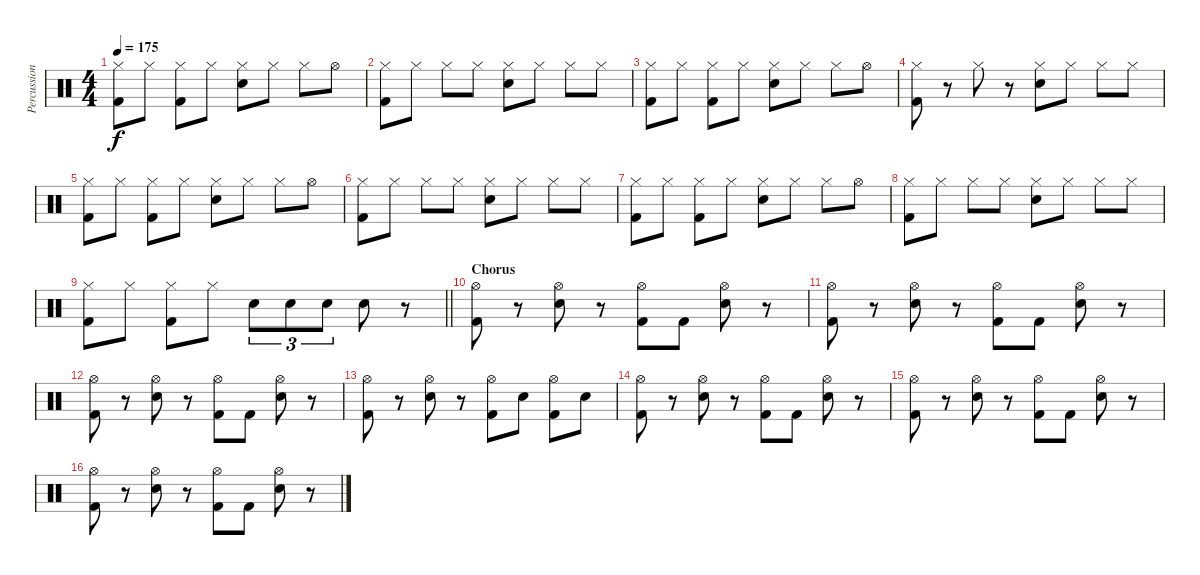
\track ("Percussion" "Percussion") {instrument percussion}
\staff {score}
\articulation defaults
\ts (4 4)
\tempo 175
\clef neutral
\ks c
("Hi-Hat (closed)" "Kick (hit) 2").8{dy f} "Hi-Hat (closed)".8 ("Hi-Hat (closed)" "Kick (hit) 2").8 "Hi-Hat (closed)".8 ("Hi-Hat (closed)" "Snare (hit) 2").8 "Hi-Hat (closed)".8 "Hi-Hat (closed)".8 "Hi-Hat (open)".8 |
("Hi-Hat (closed)" "Kick (hit) 2").8 "Hi-Hat (closed)".8 "Hi-Hat (closed)".8 "Hi-Hat (closed)".8 ("Hi-Hat (closed)" "Snare (hit) 2").8 "Hi-Hat (closed)".8 "Hi-Hat (closed)".8 "Hi-Hat (closed)".8 |
("Hi-Hat (closed)" "Kick (hit) 2").8 "Hi-Hat (closed)".8 ("Hi-Hat (closed)" "Kick (hit) 2").8 "Hi-Hat (closed)".8 ("Hi-Hat (closed)" "Snare (hit) 2").8 "Hi-Hat (closed)".8 "Hi-Hat (closed)".8 "Hi-Hat (open)".8 |
("Hi-Hat (closed)" "Kick (hit) 2").8 r.8 "Hi-Hat (closed)".8 r.8 ("Hi-Hat (closed)" "Snare (hit) 2").8 "Hi-Hat (closed)".8 "Hi-Hat (closed)".8 "Hi-Hat (closed)".8 |
("Hi-Hat (closed)" "Kick (hit) 2").8 "Hi-Hat (closed)".8 ("Hi-Hat (closed)" "Kick (hit) 2").8 "Hi-Hat (closed)".8 ("Hi-Hat (closed)" "Snare (hit) 2").8 "Hi-Hat (closed)".8 "Hi-Hat (closed)".8 "Hi-Hat (open)".8 |
("Hi-Hat (closed)" "Kick (hit) 2").8 "Hi-Hat (closed)".8 "Hi-Hat (closed)".8 "Hi-Hat (closed)".8 ("Hi-Hat (closed)" "Snare (hit) 2").8 "Hi-Hat (closed)".8 "Hi-Hat (closed)".8 "Hi-Hat (closed)".8 |
("Hi-Hat (closed)" "Kick (hit) 2").8 "Hi-Hat (closed)".8 ("Hi-Hat (closed)" "Kick (hit) 2").8 "Hi-Hat (closed)".8 ("Hi-Hat (closed)" "Snare (hit) 2").8 "Hi-Hat (closed)".8 "Hi-Hat (closed)".8 "Hi-Hat (open)".8 |
("Hi-Hat (closed)" "Kick (hit) 2").8 "Hi-Hat (closed)".8 "Hi-Hat (closed)".8 "Hi-Hat (closed)".8 ("Hi-Hat (closed)" "Snare (hit) 2").8 "Hi-Hat (closed)".8 "Hi-Hat (closed)".8 "Hi-Hat (closed)".8 |
\barLineRight lightlight
("Hi-Hat (closed)" "Kick (hit) 2").8 "Hi-Hat (closed)".8 ("Hi-Hat (closed)" "Kick (hit) 2").8 "Hi-Hat (closed)".8 "Snare (hit) 2".8{tu (3 2)} "Snare (hit) 2".8{tu (3 2)} "Snare (hit) 2".8{tu (3 2)} "Snare (hit) 2".8 r.8 |
\section ("" "Chorus")
("Hi-Hat (open)" "Kick (hit) 2").8 r.8 ("Hi-Hat (open)" "Snare (hit) 2").8 r.8 ("Hi-Hat (open)" "Kick (hit) 2").8 "Kick (hit) 2".8 ("Hi-Hat (open)" "Snare (hit) 2").8 r.8 |
("Hi-Hat (open)" "Kick (hit) 2").8 r.8 ("Hi-Hat (open)" "Snare (hit) 2").8 r.8 ("Hi-Hat (open)" "Kick (hit) 2").8 "Kick (hit) 2".8 ("Hi-Hat (open)" "Snare (hit) 2").8 r.8 |
("Hi-Hat (open)" "Kick (hit) 2").8 r.8 ("Hi-Hat (open)" "Snare (hit) 2").8 r.8 ("Hi-Hat (open)" "Kick (hit) 2").8 "Kick (hit) 2".8 ("Hi-Hat (open)" "Snare (hit) 2").8 r.8 |
("Hi-Hat (open)" "Kick (hit) 2").8 r.8 ("Hi-Hat (open)" "Snare (hit) 2").8 r.8 ("Hi-Hat (open)" "Kick (hit) 2").8 "Snare (hit) 2".8 ("Hi-Hat (open)" "Kick (hit) 2").8 "Snare (hit) 2".8 |
("Hi-Hat (open)" "Kick (hit) 2").8 r.8 ("Hi-Hat (open)" "Snare (hit) 2").8 r.8 ("Hi-Hat (open)" "Kick (hit) 2").8 "Kick (hit) 2".8 ("Hi-Hat (open)" "Snare (hit) 2").8 r.8 |
("Hi-Hat (open)" "Kick (hit) 2").8 r.8 ("Hi-Hat (open)" "Snare (hit) 2").8 r.8 ("Hi-Hat (open)" "Kick (hit) 2").8 "Kick (hit) 2".8 ("Hi-Hat (open)" "Snare (hit) 2").8 r.8 |
("Hi-Hat (open)" "Kick (hit) 2").8 r.8 ("Hi-Hat (open)" "Snare (hit) 2").8 r.8 ("Hi-Hat (open)" "Kick (hit) 2").8 "Kick (hit) 2".8 ("Hi-Hat (open)" "Snare (hit) 2").8 r.8
